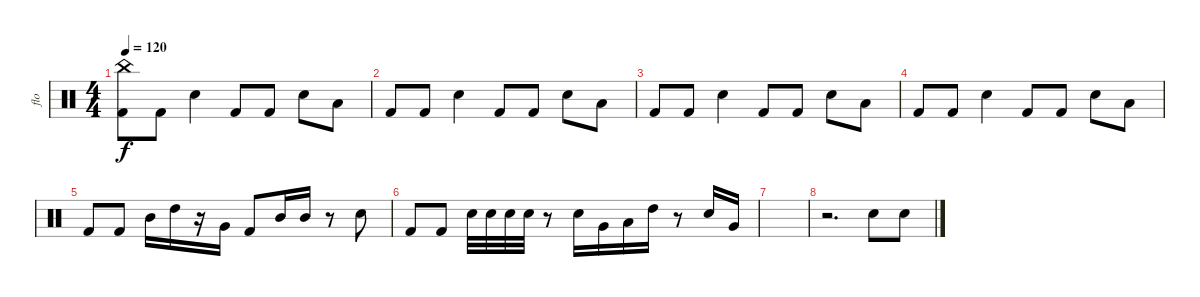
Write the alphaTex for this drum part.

\track ("flo" "flo") {instrument percussion}
\staff {score}
\articulation defaults
\ts (4 4)
\tempo 120
\clef neutral
\ks c
("China (hit)" "Kick (hit) 2").8{dy f} "Kick (hit) 2".8 "Snare (hit) 2".4 "Kick (hit) 2".8 "Kick (hit) 2".8 "Snare (hit) 2".8 "Low Floor Tom (hit)".8 |
"Kick (hit) 2".8 "Kick (hit) 2".8 "Snare (hit) 2".4 "Kick (hit) 2".8 "Kick (hit) 2".8 "Snare (hit) 2".8 "Low Floor Tom (hit)".8 |
"Kick (hit) 2".8 "Kick (hit) 2".8 "Snare (hit) 2".4 "Kick (hit) 2".8 "Kick (hit) 2".8 "Snare (hit) 2".8 "Low Floor Tom (hit)".8 |
"Kick (hit) 2".8 "Kick (hit) 2".8 "Snare (hit) 2".4 "Kick (hit) 2".8 "Kick (hit) 2".8 "Snare (hit) 2".8 "Low Floor Tom (hit)".8 |
"Kick (hit) 2".8 "Kick (hit) 2".8 "Mid Tom (hit)".16 "High Tom (hit)".16 r.16 "Very Low Tom (hit)".16 "Kick (hit) 2".8 "Mid Tom (hit)".16 "Mid Tom (hit)".16 r.8 "Snare (hit) 2".8 |
"Kick (hit) 2".8 "Kick (hit) 2".8 "Electric Snare (hit)".32 "Electric Snare (hit)".32 "Electric Snare (hit)".32 "Electric Snare (hit)".32 r.8 "Electric Snare (hit)".16 "Very Low Tom (hit)".16 "Low Tom (hit)".16 "High Tom (hit)".16 r.8 "Electric Snare (hit)".16 "Very Low Tom (hit)".16 |
|
r.2{d} "Electric Snare (hit)".8 "Electric Snare (hit)".8
